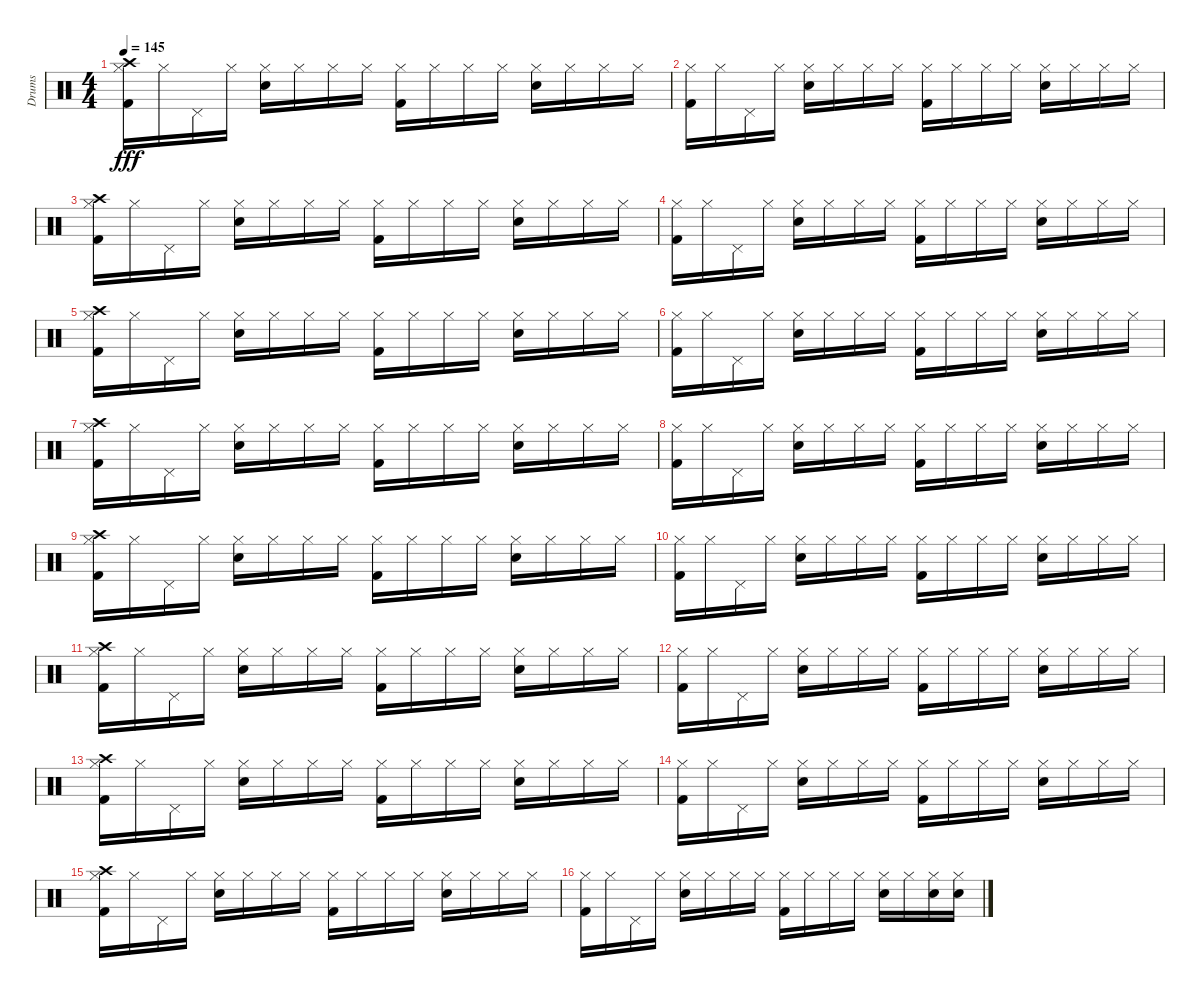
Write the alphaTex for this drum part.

\track ("Drums" "Drums") {instrument percussion}
\staff {score}
\articulation defaults
\ts (4 4)
\tempo 145
\clef neutral
\ks c
("Hi-Hat (closed)" "Kick (hit) 2" "Crash high (hit)").16{dy fff} "Hi-Hat (closed)".16 "Pedal Hi-Hat (hit)".16 "Hi-Hat (closed)".16 ("Hi-Hat (closed)" "Snare (hit) 2").16 "Hi-Hat (closed)".16 "Hi-Hat (closed)".16 "Hi-Hat (closed)".16 ("Hi-Hat (closed)" "Kick (hit) 2").16 "Hi-Hat (closed)".16 "Hi-Hat (closed)".16 "Hi-Hat (closed)".16 ("Hi-Hat (closed)" "Snare (hit) 2").16 "Hi-Hat (closed)".16 "Hi-Hat (closed)".16 "Hi-Hat (closed)".16 |
("Hi-Hat (closed)" "Kick (hit) 2").16 "Hi-Hat (closed)".16 "Pedal Hi-Hat (hit)".16 "Hi-Hat (closed)".16 ("Hi-Hat (closed)" "Snare (hit) 2").16 "Hi-Hat (closed)".16 "Hi-Hat (closed)".16 "Hi-Hat (closed)".16 ("Hi-Hat (closed)" "Kick (hit) 2").16 "Hi-Hat (closed)".16 "Hi-Hat (closed)".16 "Hi-Hat (closed)".16 ("Hi-Hat (closed)" "Snare (hit) 2").16 "Hi-Hat (closed)".16 "Hi-Hat (closed)".16 "Hi-Hat (closed)".16 |
("Hi-Hat (closed)" "Kick (hit) 2" "Crash high (hit)").16 "Hi-Hat (closed)".16 "Pedal Hi-Hat (hit)".16 "Hi-Hat (closed)".16 ("Hi-Hat (closed)" "Snare (hit) 2").16 "Hi-Hat (closed)".16 "Hi-Hat (closed)".16 "Hi-Hat (closed)".16 ("Hi-Hat (closed)" "Kick (hit) 2").16 "Hi-Hat (closed)".16 "Hi-Hat (closed)".16 "Hi-Hat (closed)".16 ("Hi-Hat (closed)" "Snare (hit) 2").16 "Hi-Hat (closed)".16 "Hi-Hat (closed)".16 "Hi-Hat (closed)".16 |
("Hi-Hat (closed)" "Kick (hit) 2").16 "Hi-Hat (closed)".16 "Pedal Hi-Hat (hit)".16 "Hi-Hat (closed)".16 ("Hi-Hat (closed)" "Snare (hit) 2").16 "Hi-Hat (closed)".16 "Hi-Hat (closed)".16 "Hi-Hat (closed)".16 ("Hi-Hat (closed)" "Kick (hit) 2").16 "Hi-Hat (closed)".16 "Hi-Hat (closed)".16 "Hi-Hat (closed)".16 ("Hi-Hat (closed)" "Snare (hit) 2").16 "Hi-Hat (closed)".16 "Hi-Hat (closed)".16 "Hi-Hat (closed)".16 |
("Hi-Hat (closed)" "Kick (hit) 2" "Crash high (hit)").16 "Hi-Hat (closed)".16 "Pedal Hi-Hat (hit)".16 "Hi-Hat (closed)".16 ("Hi-Hat (closed)" "Snare (hit) 2").16 "Hi-Hat (closed)".16 "Hi-Hat (closed)".16 "Hi-Hat (closed)".16 ("Hi-Hat (closed)" "Kick (hit) 2").16 "Hi-Hat (closed)".16 "Hi-Hat (closed)".16 "Hi-Hat (closed)".16 ("Hi-Hat (closed)" "Snare (hit) 2").16 "Hi-Hat (closed)".16 "Hi-Hat (closed)".16 "Hi-Hat (closed)".16 |
("Hi-Hat (closed)" "Kick (hit) 2").16 "Hi-Hat (closed)".16 "Pedal Hi-Hat (hit)".16 "Hi-Hat (closed)".16 ("Hi-Hat (closed)" "Snare (hit) 2").16 "Hi-Hat (closed)".16 "Hi-Hat (closed)".16 "Hi-Hat (closed)".16 ("Hi-Hat (closed)" "Kick (hit) 2").16 "Hi-Hat (closed)".16 "Hi-Hat (closed)".16 "Hi-Hat (closed)".16 ("Hi-Hat (closed)" "Snare (hit) 2").16 "Hi-Hat (closed)".16 "Hi-Hat (closed)".16 "Hi-Hat (closed)".16 |
("Hi-Hat (closed)" "Kick (hit) 2" "Crash high (hit)").16 "Hi-Hat (closed)".16 "Pedal Hi-Hat (hit)".16 "Hi-Hat (closed)".16 ("Hi-Hat (closed)" "Snare (hit) 2").16 "Hi-Hat (closed)".16 "Hi-Hat (closed)".16 "Hi-Hat (closed)".16 ("Hi-Hat (closed)" "Kick (hit) 2").16 "Hi-Hat (closed)".16 "Hi-Hat (closed)".16 "Hi-Hat (closed)".16 ("Hi-Hat (closed)" "Snare (hit) 2").16 "Hi-Hat (closed)".16 "Hi-Hat (closed)".16 "Hi-Hat (closed)".16 |
("Hi-Hat (closed)" "Kick (hit) 2").16 "Hi-Hat (closed)".16 "Pedal Hi-Hat (hit)".16 "Hi-Hat (closed)".16 ("Hi-Hat (closed)" "Snare (hit) 2").16 "Hi-Hat (closed)".16 "Hi-Hat (closed)".16 "Hi-Hat (closed)".16 ("Hi-Hat (closed)" "Kick (hit) 2").16 "Hi-Hat (closed)".16 "Hi-Hat (closed)".16 "Hi-Hat (closed)".16 ("Hi-Hat (closed)" "Snare (hit) 2").16 "Hi-Hat (closed)".16 "Hi-Hat (closed)".16 "Hi-Hat (closed)".16 |
("Hi-Hat (closed)" "Kick (hit) 2" "Crash high (hit)").16 "Hi-Hat (closed)".16 "Pedal Hi-Hat (hit)".16 "Hi-Hat (closed)".16 ("Hi-Hat (closed)" "Snare (hit) 2").16 "Hi-Hat (closed)".16 "Hi-Hat (closed)".16 "Hi-Hat (closed)".16 ("Hi-Hat (closed)" "Kick (hit) 2").16 "Hi-Hat (closed)".16 "Hi-Hat (closed)".16 "Hi-Hat (closed)".16 ("Hi-Hat (closed)" "Snare (hit) 2").16 "Hi-Hat (closed)".16 "Hi-Hat (closed)".16 "Hi-Hat (closed)".16 |
("Hi-Hat (closed)" "Kick (hit) 2").16 "Hi-Hat (closed)".16 "Pedal Hi-Hat (hit)".16 "Hi-Hat (closed)".16 ("Hi-Hat (closed)" "Snare (hit) 2").16 "Hi-Hat (closed)".16 "Hi-Hat (closed)".16 "Hi-Hat (closed)".16 ("Hi-Hat (closed)" "Kick (hit) 2").16 "Hi-Hat (closed)".16 "Hi-Hat (closed)".16 "Hi-Hat (closed)".16 ("Hi-Hat (closed)" "Snare (hit) 2").16 "Hi-Hat (closed)".16 "Hi-Hat (closed)".16 "Hi-Hat (closed)".16 |
("Hi-Hat (closed)" "Kick (hit) 2" "Crash high (hit)").16 "Hi-Hat (closed)".16 "Pedal Hi-Hat (hit)".16 "Hi-Hat (closed)".16 ("Hi-Hat (closed)" "Snare (hit) 2").16 "Hi-Hat (closed)".16 "Hi-Hat (closed)".16 "Hi-Hat (closed)".16 ("Hi-Hat (closed)" "Kick (hit) 2").16 "Hi-Hat (closed)".16 "Hi-Hat (closed)".16 "Hi-Hat (closed)".16 ("Hi-Hat (closed)" "Snare (hit) 2").16 "Hi-Hat (closed)".16 "Hi-Hat (closed)".16 "Hi-Hat (closed)".16 |
("Hi-Hat (closed)" "Kick (hit) 2").16 "Hi-Hat (closed)".16 "Pedal Hi-Hat (hit)".16 "Hi-Hat (closed)".16 ("Hi-Hat (closed)" "Snare (hit) 2").16 "Hi-Hat (closed)".16 "Hi-Hat (closed)".16 "Hi-Hat (closed)".16 ("Hi-Hat (closed)" "Kick (hit) 2").16 "Hi-Hat (closed)".16 "Hi-Hat (closed)".16 "Hi-Hat (closed)".16 ("Hi-Hat (closed)" "Snare (hit) 2").16 "Hi-Hat (closed)".16 "Hi-Hat (closed)".16 "Hi-Hat (closed)".16 |
("Hi-Hat (closed)" "Kick (hit) 2" "Crash high (hit)").16 "Hi-Hat (closed)".16 "Pedal Hi-Hat (hit)".16 "Hi-Hat (closed)".16 ("Hi-Hat (closed)" "Snare (hit) 2").16 "Hi-Hat (closed)".16 "Hi-Hat (closed)".16 "Hi-Hat (closed)".16 ("Hi-Hat (closed)" "Kick (hit) 2").16 "Hi-Hat (closed)".16 "Hi-Hat (closed)".16 "Hi-Hat (closed)".16 ("Hi-Hat (closed)" "Snare (hit) 2").16 "Hi-Hat (closed)".16 "Hi-Hat (closed)".16 "Hi-Hat (closed)".16 |
("Hi-Hat (closed)" "Kick (hit) 2").16 "Hi-Hat (closed)".16 "Pedal Hi-Hat (hit)".16 "Hi-Hat (closed)".16 ("Hi-Hat (closed)" "Snare (hit) 2").16 "Hi-Hat (closed)".16 "Hi-Hat (closed)".16 "Hi-Hat (closed)".16 ("Hi-Hat (closed)" "Kick (hit) 2").16 "Hi-Hat (closed)".16 "Hi-Hat (closed)".16 "Hi-Hat (closed)".16 ("Hi-Hat (closed)" "Snare (hit) 2").16 "Hi-Hat (closed)".16 "Hi-Hat (closed)".16 "Hi-Hat (closed)".16 |
("Hi-Hat (closed)" "Kick (hit) 2" "Crash high (hit)").16 "Hi-Hat (closed)".16 "Pedal Hi-Hat (hit)".16 "Hi-Hat (closed)".16 ("Hi-Hat (closed)" "Snare (hit) 2").16 "Hi-Hat (closed)".16 "Hi-Hat (closed)".16 "Hi-Hat (closed)".16 ("Hi-Hat (closed)" "Kick (hit) 2").16 "Hi-Hat (closed)".16 "Hi-Hat (closed)".16 "Hi-Hat (closed)".16 ("Hi-Hat (closed)" "Snare (hit) 2").16 "Hi-Hat (closed)".16 "Hi-Hat (closed)".16 "Hi-Hat (closed)".16 |
("Hi-Hat (closed)" "Kick (hit) 2").16 "Hi-Hat (closed)".16 "Pedal Hi-Hat (hit)".16 "Hi-Hat (closed)".16 ("Hi-Hat (closed)" "Snare (hit) 2").16 "Hi-Hat (closed)".16 "Hi-Hat (closed)".16 "Hi-Hat (closed)".16 ("Hi-Hat (closed)" "Kick (hit) 2").16 "Hi-Hat (closed)".16 "Hi-Hat (closed)".16 "Hi-Hat (closed)".16 ("Hi-Hat (closed)" "Snare (hit) 2").16 "Hi-Hat (closed)".16 ("Hi-Hat (closed)" "Snare (hit) 2").16 ("Hi-Hat (closed)" "Snare (hit) 2").16
